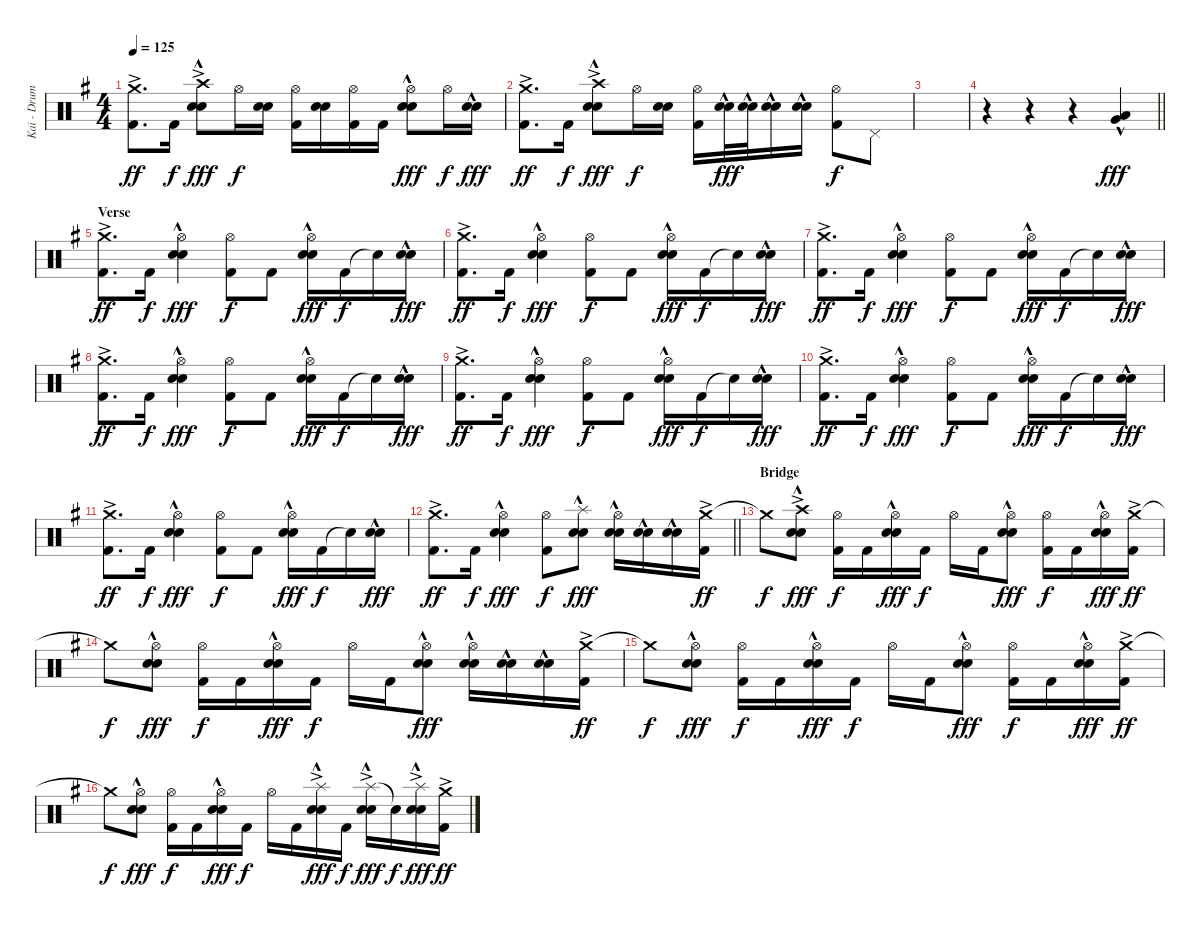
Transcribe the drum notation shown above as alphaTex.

\track ("Kai - Drums" "Kai - Drum") {instrument percussion}
\staff {score}
\articulation defaults
\ts (4 4)
\tempo 125
\clef neutral
\ks eminor
("Crash medium (hit)"{ac} "Kick (hit) 2").8{d dy ff} "Kick (hit) 2".16{dy f} ("Crash high (hit)"{ac} "Electric Snare (hit)"{hac} "Snare (hit) 2"{hac}).8{dy fff} "Hi-Hat (open)".16{dy f} ("Electric Snare (hit)" "Snare (hit) 2").16 ("Hi-Hat (open)" "Kick (hit) 2").16 ("Electric Snare (hit)" "Snare (hit) 2").16 ("Hi-Hat (open)" "Kick (hit) 2").16 "Kick (hit) 2".16 ("Hi-Hat (open)" "Electric Snare (hit)"{hac} "Snare (hit) 2"{hac}).8{dy fff} "Hi-Hat (open)".16{dy f} ("Electric Snare (hit)"{hac} "Snare (hit) 2"{hac}).16{dy fff} |
("Crash medium (hit)"{ac} "Kick (hit) 2").8{d dy ff} "Kick (hit) 2".16{dy f} ("Crash high (hit)"{ac} "Electric Snare (hit)"{hac} "Snare (hit) 2"{hac}).8{dy fff} "Hi-Hat (open)".16{dy f} ("Electric Snare (hit)" "Snare (hit) 2").16 ("Hi-Hat (open)" "Kick (hit) 2").16 ("Electric Snare (hit)"{hac} "Snare (hit) 2"{hac}).32{dy fff} ("Electric Snare (hit)"{hac} "Snare (hit) 2"{hac}).32 ("Electric Snare (hit)"{hac} "Snare (hit) 2"{hac}).16 ("Electric Snare (hit)"{hac} "Snare (hit) 2"{hac}).16 ("Hi-Hat (open)" "Kick (hit) 2").8{dy f} "Pedal Hi-Hat (hit)".8 |
|
\barLineRight lightlight
r.4 r.4 r.4 ("Low Tom (hit)"{hac} "Very Low Tom (hit)"{hac}).4{dy fff} |
\section ("" "Verse")
("Crash medium (hit)"{ac} "Kick (hit) 2").8{d dy ff} "Kick (hit) 2".16{dy f} ("Hi-Hat (open)" "Electric Snare (hit)"{hac} "Snare (hit) 2"{hac}).4{dy fff} ("Hi-Hat (open)" "Kick (hit) 2").8{dy f} "Kick (hit) 2".8 ("Hi-Hat (open)" "Electric Snare (hit)"{hac} "Snare (hit) 2"{hac}).16{dy fff} "Kick (hit) 2".16{dy f} "Snare (hit)"{t}.16 ("Electric Snare (hit)"{hac} "Snare (hit) 2"{hac}).16{dy fff} |
("Crash medium (hit)"{ac} "Kick (hit) 2").8{d dy ff} "Kick (hit) 2".16{dy f} ("Hi-Hat (open)" "Electric Snare (hit)"{hac} "Snare (hit) 2"{hac}).4{dy fff} ("Hi-Hat (open)" "Kick (hit) 2").8{dy f} "Kick (hit) 2".8 ("Hi-Hat (open)" "Electric Snare (hit)"{hac} "Snare (hit) 2"{hac}).16{dy fff} "Kick (hit) 2".16{dy f} "Snare (hit)"{t}.16 ("Electric Snare (hit)"{hac} "Snare (hit) 2"{hac}).16{dy fff} |
("Crash medium (hit)"{ac} "Kick (hit) 2").8{d dy ff} "Kick (hit) 2".16{dy f} ("Hi-Hat (open)" "Electric Snare (hit)"{hac} "Snare (hit) 2"{hac}).4{dy fff} ("Hi-Hat (open)" "Kick (hit) 2").8{dy f} "Kick (hit) 2".8 ("Hi-Hat (open)" "Electric Snare (hit)"{hac} "Snare (hit) 2"{hac}).16{dy fff} "Kick (hit) 2".16{dy f} "Snare (hit)"{t}.16 ("Electric Snare (hit)"{hac} "Snare (hit) 2"{hac}).16{dy fff} |
("Crash medium (hit)"{ac} "Kick (hit) 2").8{d dy ff} "Kick (hit) 2".16{dy f} ("Hi-Hat (open)" "Electric Snare (hit)"{hac} "Snare (hit) 2"{hac}).4{dy fff} ("Hi-Hat (open)" "Kick (hit) 2").8{dy f} "Kick (hit) 2".8 ("Hi-Hat (open)" "Electric Snare (hit)"{hac} "Snare (hit) 2"{hac}).16{dy fff} "Kick (hit) 2".16{dy f} "Snare (hit)"{t}.16 ("Electric Snare (hit)"{hac} "Snare (hit) 2"{hac}).16{dy fff} |
("Crash medium (hit)"{ac} "Kick (hit) 2").8{d dy ff} "Kick (hit) 2".16{dy f} ("Hi-Hat (open)" "Electric Snare (hit)"{hac} "Snare (hit) 2"{hac}).4{dy fff} ("Hi-Hat (open)" "Kick (hit) 2").8{dy f} "Kick (hit) 2".8 ("Hi-Hat (open)" "Electric Snare (hit)"{hac} "Snare (hit) 2"{hac}).16{dy fff} "Kick (hit) 2".16{dy f} "Snare (hit)"{t}.16 ("Electric Snare (hit)"{hac} "Snare (hit) 2"{hac}).16{dy fff} |
("Crash medium (hit)"{ac} "Kick (hit) 2").8{d dy ff} "Kick (hit) 2".16{dy f} ("Hi-Hat (open)" "Electric Snare (hit)"{hac} "Snare (hit) 2"{hac}).4{dy fff} ("Hi-Hat (open)" "Kick (hit) 2").8{dy f} "Kick (hit) 2".8 ("Hi-Hat (open)" "Electric Snare (hit)"{hac} "Snare (hit) 2"{hac}).16{dy fff} "Kick (hit) 2".16{dy f} "Snare (hit)"{t}.16 ("Electric Snare (hit)"{hac} "Snare (hit) 2"{hac}).16{dy fff} |
("Crash medium (hit)"{ac} "Kick (hit) 2").8{d dy ff} "Kick (hit) 2".16{dy f} ("Hi-Hat (open)" "Electric Snare (hit)"{hac} "Snare (hit) 2"{hac}).4{dy fff} ("Hi-Hat (open)" "Kick (hit) 2").8{dy f} "Kick (hit) 2".8 ("Hi-Hat (open)" "Electric Snare (hit)"{hac} "Snare (hit) 2"{hac}).16{dy fff} "Kick (hit) 2".16{dy f} "Snare (hit)"{t}.16 ("Electric Snare (hit)"{hac} "Snare (hit) 2"{hac}).16{dy fff} |
\barLineRight lightlight
("Crash medium (hit)"{ac} "Kick (hit) 2").8{d dy ff} "Kick (hit) 2".16{dy f} ("Hi-Hat (open)" "Electric Snare (hit)"{hac} "Snare (hit) 2"{hac}).4{dy fff} ("Hi-Hat (open)" "Kick (hit) 2").8{dy f} ("Splash (hit)"{hac} "Electric Snare (hit)"{hac} "Snare (hit) 2"{hac}).8{dy fff} ("Hi-Hat (open)" "Electric Snare (hit)"{hac} "Snare (hit) 2"{hac}).16 ("Electric Snare (hit)"{hac} "Snare (hit) 2"{hac}).16 ("Electric Snare (hit)"{hac} "Snare (hit) 2"{hac}).16 ("Crash medium (hit)"{ac} "Kick (hit) 2").16{dy ff} |
\section ("" "Bridge")
"Crash medium (hit)"{t}.8{dy f} ("Crash high (hit)"{ac} "Electric Snare (hit)"{hac} "Snare (hit) 2"{hac}).8{dy fff} ("Hi-Hat (open)" "Kick (hit) 2").16{dy f} "Kick (hit) 2".16 ("Hi-Hat (open)" "Electric Snare (hit)"{hac} "Snare (hit) 2"{hac}).16{dy fff} "Kick (hit) 2".16{dy f} "Hi-Hat (open)".16 "Kick (hit) 2".16 ("Hi-Hat (open)" "Electric Snare (hit)"{hac} "Snare (hit) 2"{hac}).8{dy fff} ("Hi-Hat (open)" "Kick (hit) 2").16{dy f} "Kick (hit) 2".16 ("Hi-Hat (open)" "Electric Snare (hit)"{hac} "Snare (hit) 2"{hac}).16{dy fff} ("Crash medium (hit)"{ac} "Kick (hit) 2").16{dy ff} |
"Crash medium (hit)"{t}.8{dy f} ("Hi-Hat (open)" "Electric Snare (hit)"{hac} "Snare (hit) 2"{hac}).8{dy fff} ("Hi-Hat (open)" "Kick (hit) 2").16{dy f} "Kick (hit) 2".16 ("Hi-Hat (open)" "Electric Snare (hit)"{hac} "Snare (hit) 2"{hac}).16{dy fff} "Kick (hit) 2".16{dy f} "Hi-Hat (open)".16 "Kick (hit) 2".16 ("Hi-Hat (open)" "Electric Snare (hit)"{hac} "Snare (hit) 2"{hac}).8{dy fff} ("Hi-Hat (open)" "Electric Snare (hit)"{hac} "Snare (hit) 2"{hac}).16 ("Electric Snare (hit)"{hac} "Snare (hit) 2"{hac}).16 ("Electric Snare (hit)"{hac} "Snare (hit) 2"{hac}).16 ("Crash medium (hit)"{ac} "Kick (hit) 2").16{dy ff} |
"Crash medium (hit)"{t}.8{dy f} ("Hi-Hat (open)" "Electric Snare (hit)"{hac} "Snare (hit) 2"{hac}).8{dy fff} ("Hi-Hat (open)" "Kick (hit) 2").16{dy f} "Kick (hit) 2".16 ("Hi-Hat (open)" "Electric Snare (hit)"{hac} "Snare (hit) 2"{hac}).16{dy fff} "Kick (hit) 2".16{dy f} "Hi-Hat (open)".16 "Kick (hit) 2".16 ("Hi-Hat (open)" "Electric Snare (hit)"{hac} "Snare (hit) 2"{hac}).8{dy fff} ("Hi-Hat (open)" "Kick (hit) 2").16{dy f} "Kick (hit) 2".16 ("Hi-Hat (open)" "Electric Snare (hit)"{hac} "Snare (hit) 2"{hac}).16{dy fff} ("Crash medium (hit)"{ac} "Kick (hit) 2").16{dy ff} |
"Crash medium (hit)"{t}.8{dy f} ("Hi-Hat (open)" "Electric Snare (hit)"{hac} "Snare (hit) 2"{hac}).8{dy fff} ("Hi-Hat (open)" "Kick (hit) 2").16{dy f} "Kick (hit) 2".16 ("Hi-Hat (open)" "Electric Snare (hit)"{hac} "Snare (hit) 2"{hac}).16{dy fff} "Kick (hit) 2".16{dy f} "Hi-Hat (open)".16 "Kick (hit) 2".16 ("Splash (hit)"{ac} "Electric Snare (hit)"{hac} "Snare (hit) 2"{hac}).16{dy fff} "Kick (hit) 2".16{dy f} ("Splash (hit)"{ac} "Electric Snare (hit)"{hac} "Snare (hit) 2"{hac}).16{dy fff} "Snare (hit)"{t}.16{dy f} ("Splash (hit)"{ac} "Electric Snare (hit)"{hac} "Snare (hit) 2"{hac}).16{dy fff} ("Crash medium (hit)"{ac} "Kick (hit) 2").16{dy ff}
